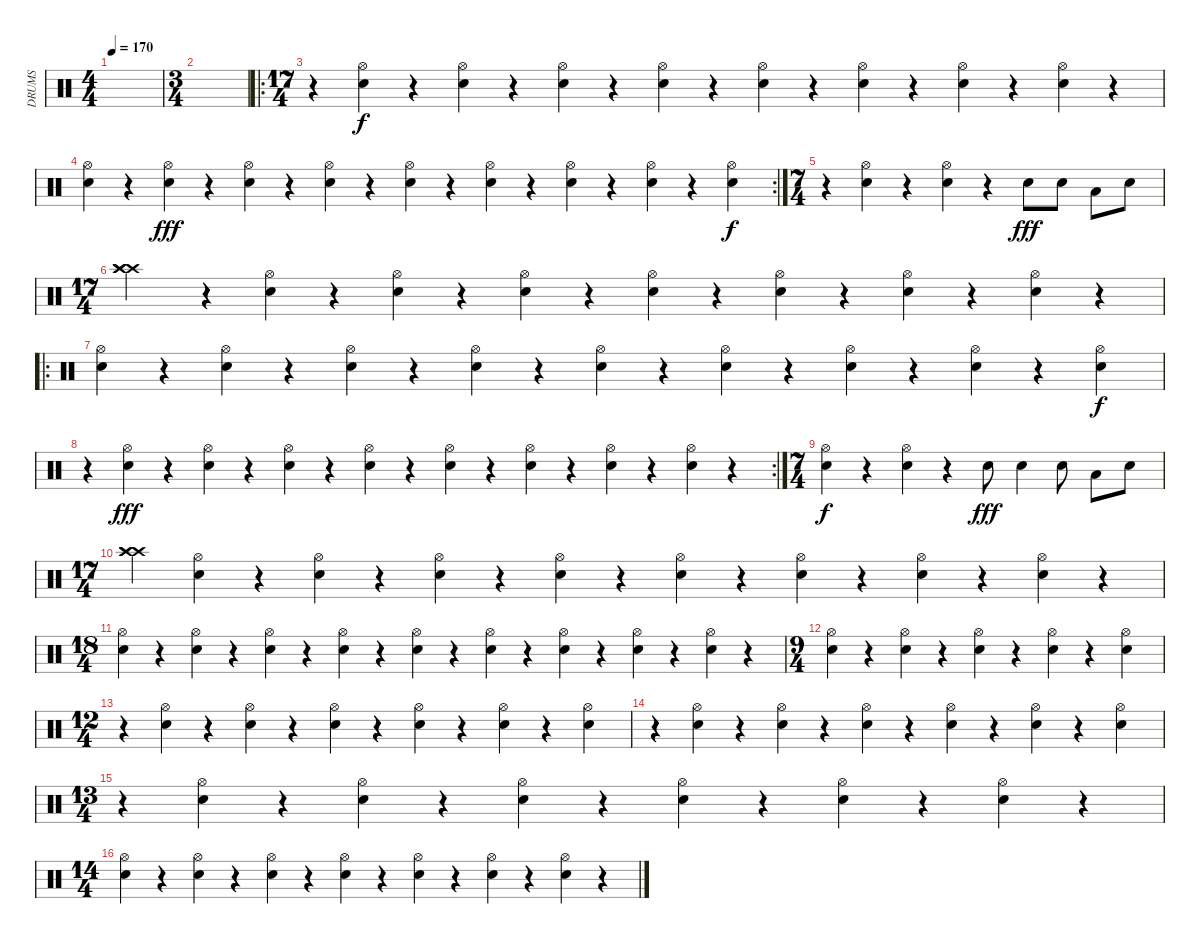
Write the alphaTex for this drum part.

\track ("DRUMS" "DRUMS") {instrument percussion}
\staff {score}
\articulation defaults
\ts (4 4)
\tempo 170
\clef neutral
\ks c
|
\ts (3 4)
|
\ro
\ts (17 4)
r.4 ("Hi-Hat (open)" "Electric Snare (hit)").4 r.4 ("Hi-Hat (open)" "Electric Snare (hit)").4 r.4 ("Hi-Hat (open)" "Electric Snare (hit)").4 r.4 ("Hi-Hat (open)" "Electric Snare (hit)").4 r.4 ("Hi-Hat (open)" "Electric Snare (hit)").4 r.4 ("Hi-Hat (open)" "Electric Snare (hit)").4 r.4 ("Hi-Hat (open)" "Electric Snare (hit)").4 r.4 ("Hi-Hat (open)" "Electric Snare (hit)").4 r.4 |
\rc 2
("Hi-Hat (open)" "Electric Snare (hit)").4 r.4 ("Hi-Hat (open)" "Electric Snare (hit)").4{dy fff} r.4 ("Hi-Hat (open)" "Electric Snare (hit)").4 r.4 ("Hi-Hat (open)" "Electric Snare (hit)").4 r.4 ("Hi-Hat (open)" "Electric Snare (hit)").4 r.4 ("Hi-Hat (open)" "Electric Snare (hit)").4 r.4 ("Hi-Hat (open)" "Electric Snare (hit)").4 r.4 ("Hi-Hat (open)" "Electric Snare (hit)").4 r.4 ("Hi-Hat (open)" "Electric Snare (hit)").4{dy f} |
\ts (7 4)
r.4 ("Hi-Hat (open)" "Electric Snare (hit)").4 r.4 ("Hi-Hat (open)" "Electric Snare (hit)").4 r.4 "Electric Snare (hit)".8{dy fff} "Electric Snare (hit)".8 "Low Tom (hit)".8 "Electric Snare (hit)".8 |
\ts (17 4)
("Crash high (hit)" "Crash high (hit)" "Crash high (hit)").2 r.4 ("Hi-Hat (open)" "Electric Snare (hit)").4 r.4 ("Hi-Hat (open)" "Electric Snare (hit)").4 r.4 ("Hi-Hat (open)" "Electric Snare (hit)").4 r.4 ("Hi-Hat (open)" "Electric Snare (hit)").4 r.4 ("Hi-Hat (open)" "Electric Snare (hit)").4 r.4 ("Hi-Hat (open)" "Electric Snare (hit)").4 r.4 ("Hi-Hat (open)" "Electric Snare (hit)").4 r.4 |
\ro
("Hi-Hat (open)" "Electric Snare (hit)").4 r.4 ("Hi-Hat (open)" "Electric Snare (hit)").4 r.4 ("Hi-Hat (open)" "Electric Snare (hit)").4 r.4 ("Hi-Hat (open)" "Electric Snare (hit)").4 r.4 ("Hi-Hat (open)" "Electric Snare (hit)").4 r.4 ("Hi-Hat (open)" "Electric Snare (hit)").4 r.4 ("Hi-Hat (open)" "Electric Snare (hit)").4 r.4 ("Hi-Hat (open)" "Electric Snare (hit)").4 r.4 ("Hi-Hat (open)" "Electric Snare (hit)").4{dy f} |
\rc 2
r.4 ("Hi-Hat (open)" "Electric Snare (hit)").4{dy fff} r.4 ("Hi-Hat (open)" "Electric Snare (hit)").4 r.4 ("Hi-Hat (open)" "Electric Snare (hit)").4 r.4 ("Hi-Hat (open)" "Electric Snare (hit)").4 r.4 ("Hi-Hat (open)" "Electric Snare (hit)").4 r.4 ("Hi-Hat (open)" "Electric Snare (hit)").4 r.4 ("Hi-Hat (open)" "Electric Snare (hit)").4 r.4 ("Hi-Hat (open)" "Electric Snare (hit)").4 r.4 |
\ts (7 4)
("Hi-Hat (open)" "Electric Snare (hit)").4{dy f} r.4 ("Hi-Hat (open)" "Electric Snare (hit)").4 r.4 "Electric Snare (hit)".8{dy fff} "Electric Snare (hit)".4 "Electric Snare (hit)".8 "Low Tom (hit)".8 "Electric Snare (hit)".8 |
\ts (17 4)
("Crash high (hit)" "Crash high (hit)" "Crash high (hit)").4 ("Hi-Hat (open)" "Electric Snare (hit)").4 r.4 ("Hi-Hat (open)" "Electric Snare (hit)").4 r.4 ("Hi-Hat (open)" "Electric Snare (hit)").4 r.4 ("Hi-Hat (open)" "Electric Snare (hit)").4 r.4 ("Hi-Hat (open)" "Electric Snare (hit)").4 r.4 ("Hi-Hat (open)" "Electric Snare (hit)").4 r.4 ("Hi-Hat (open)" "Electric Snare (hit)").4 r.4 ("Hi-Hat (open)" "Electric Snare (hit)").4 r.4 |
\ts (18 4)
("Hi-Hat (open)" "Electric Snare (hit)").4 r.4 ("Hi-Hat (open)" "Electric Snare (hit)").4 r.4 ("Hi-Hat (open)" "Electric Snare (hit)").4 r.4 ("Hi-Hat (open)" "Electric Snare (hit)").4 r.4 ("Hi-Hat (open)" "Electric Snare (hit)").4 r.4 ("Hi-Hat (open)" "Electric Snare (hit)").4 r.4 ("Hi-Hat (open)" "Electric Snare (hit)").4 r.4 ("Hi-Hat (open)" "Electric Snare (hit)").4 r.4 ("Hi-Hat (open)" "Electric Snare (hit)").4 r.4 |
\ts (9 4)
("Hi-Hat (open)" "Electric Snare (hit)").4 r.4 ("Hi-Hat (open)" "Electric Snare (hit)").4 r.4 ("Hi-Hat (open)" "Electric Snare (hit)").4 r.4 ("Hi-Hat (open)" "Electric Snare (hit)").4 r.4 ("Hi-Hat (open)" "Electric Snare (hit)").4 |
\ts (12 4)
r.4 ("Hi-Hat (open)" "Electric Snare (hit)").4 r.4 ("Hi-Hat (open)" "Electric Snare (hit)").4 r.4 ("Hi-Hat (open)" "Electric Snare (hit)").4 r.4 ("Hi-Hat (open)" "Electric Snare (hit)").4 r.4 ("Hi-Hat (open)" "Electric Snare (hit)").4 r.4 ("Hi-Hat (open)" "Electric Snare (hit)").4 |
r.4 ("Hi-Hat (open)" "Electric Snare (hit)").4 r.4 ("Hi-Hat (open)" "Electric Snare (hit)").4 r.4 ("Hi-Hat (open)" "Electric Snare (hit)").4 r.4 ("Hi-Hat (open)" "Electric Snare (hit)").4 r.4 ("Hi-Hat (open)" "Electric Snare (hit)").4 r.4 ("Hi-Hat (open)" "Electric Snare (hit)").4 |
\ts (13 4)
r.4 ("Hi-Hat (open)" "Electric Snare (hit)").4 r.4 ("Hi-Hat (open)" "Electric Snare (hit)").4 r.4 ("Hi-Hat (open)" "Electric Snare (hit)").4 r.4 ("Hi-Hat (open)" "Electric Snare (hit)").4 r.4 ("Hi-Hat (open)" "Electric Snare (hit)").4 r.4 ("Hi-Hat (open)" "Electric Snare (hit)").4 r.4 |
\ts (14 4)
("Hi-Hat (open)" "Electric Snare (hit)").4 r.4 ("Hi-Hat (open)" "Electric Snare (hit)").4 r.4 ("Hi-Hat (open)" "Electric Snare (hit)").4 r.4 ("Hi-Hat (open)" "Electric Snare (hit)").4 r.4 ("Hi-Hat (open)" "Electric Snare (hit)").4 r.4 ("Hi-Hat (open)" "Electric Snare (hit)").4 r.4 ("Hi-Hat (open)" "Electric Snare (hit)").4 r.4
